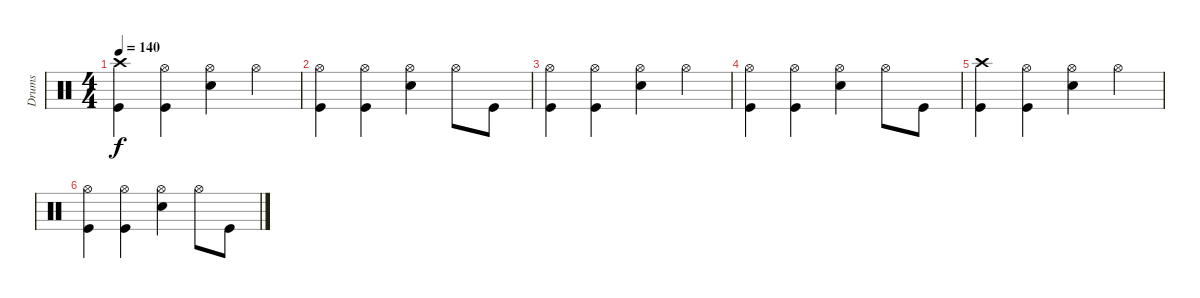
\track ("Drums" "Drums") {instrument percussion}
\staff {score}
\articulation defaults
\ts (4 4)
\tempo 140
\clef neutral
\ks c
("Crash high (hit)" "Kick (hit)").4{dy f} ("Hi-Hat (open)" "Kick (hit)").4 ("Hi-Hat (open)" "Snare (hit) 2").4 "Hi-Hat (open)".4 |
("Hi-Hat (open)" "Kick (hit)").4 ("Hi-Hat (open)" "Kick (hit)").4 ("Hi-Hat (open)" "Snare (hit) 2").4 "Hi-Hat (open)".8 "Kick (hit)".8 |
("Hi-Hat (open)" "Kick (hit)").4 ("Hi-Hat (open)" "Kick (hit)").4 ("Hi-Hat (open)" "Snare (hit) 2").4 "Hi-Hat (open)".4 |
("Hi-Hat (open)" "Kick (hit)").4 ("Hi-Hat (open)" "Kick (hit)").4 ("Hi-Hat (open)" "Snare (hit) 2").4 "Hi-Hat (open)".8 "Kick (hit)".8 |
("Crash high (hit)" "Kick (hit)").4 ("Hi-Hat (open)" "Kick (hit)").4 ("Hi-Hat (open)" "Snare (hit) 2").4 "Hi-Hat (open)".4 |
("Hi-Hat (open)" "Kick (hit)").4 ("Hi-Hat (open)" "Kick (hit)").4 ("Hi-Hat (open)" "Snare (hit) 2").4 "Hi-Hat (open)".8 "Kick (hit)".8
